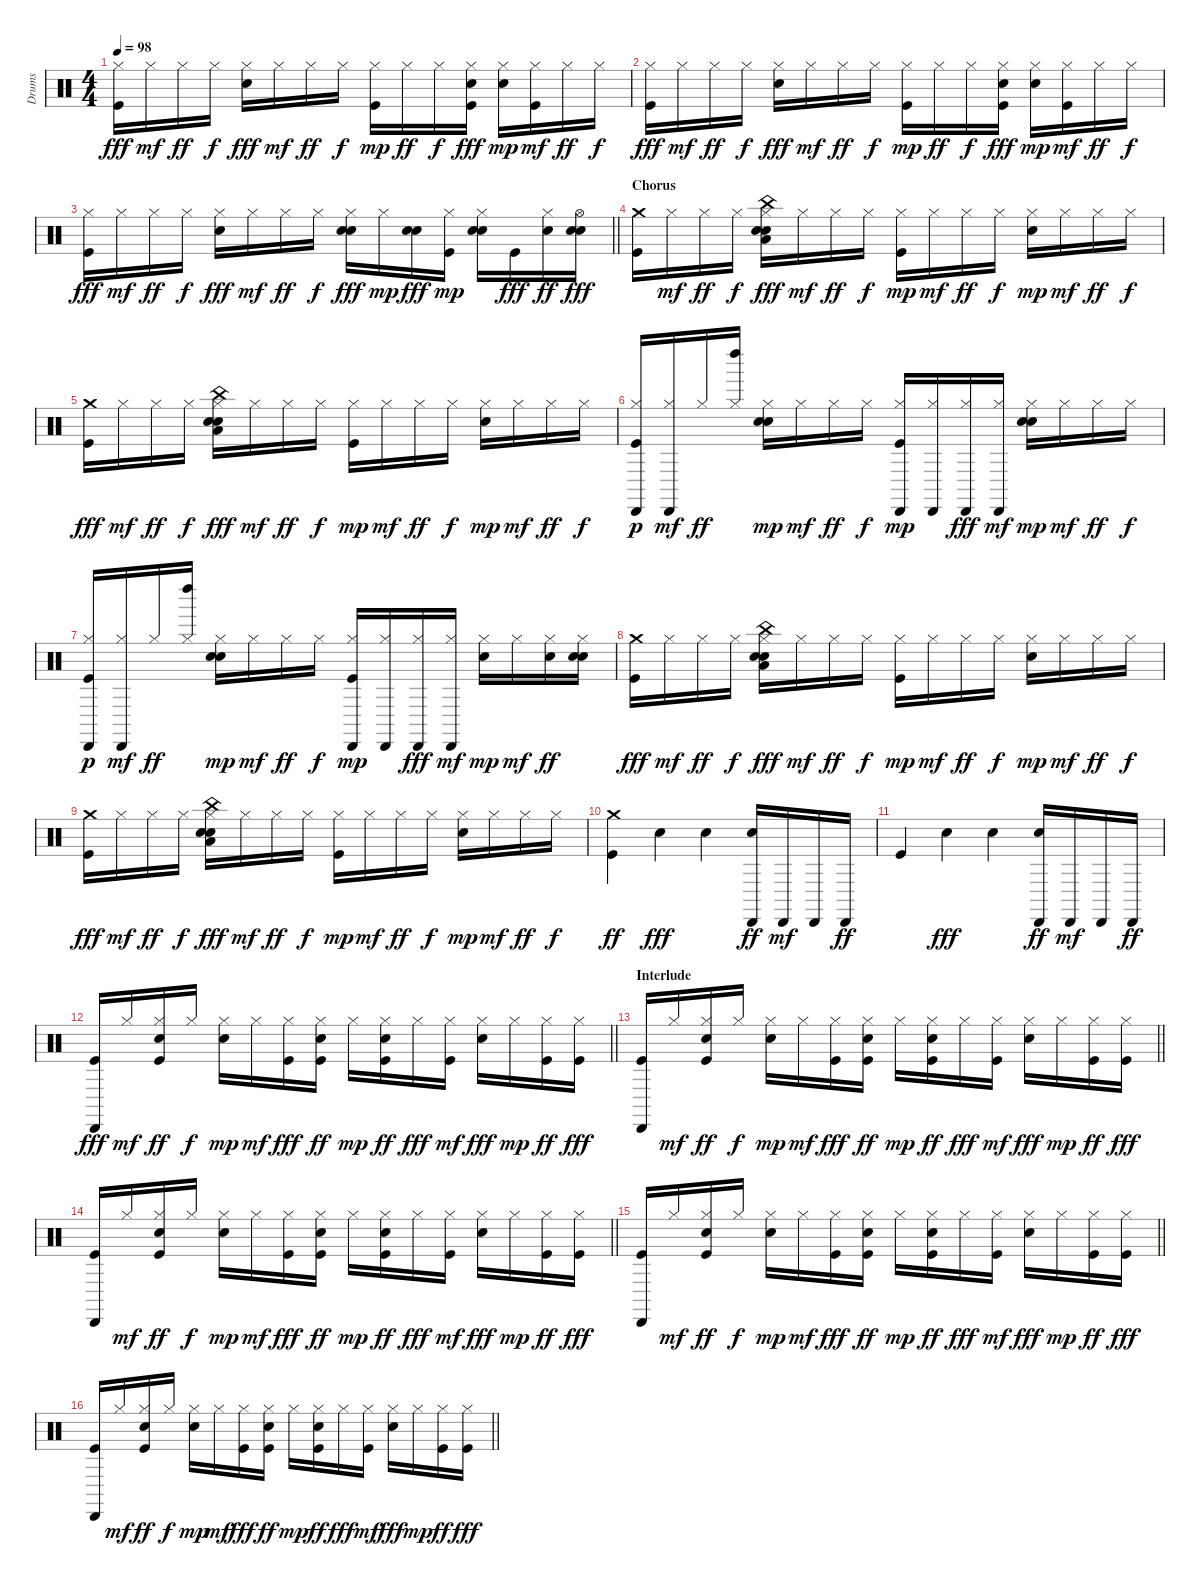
\track ("Drums" "Drums") {instrument percussion}
\staff {score}
\articulation defaults
\ts (4 4)
\tempo 98
\clef neutral
\ks c
("Hi-Hat (closed)" "Kick (hit)").16{dy fff} "Hi-Hat (closed)".16{dy mf} "Hi-Hat (closed)".16{dy ff} "Hi-Hat (closed)".16{dy f} ("Hi-Hat (closed)" "Snare (hit) 2").16{dy fff} "Hi-Hat (closed)".16{dy mf} "Hi-Hat (closed)".16{dy ff} "Hi-Hat (closed)".16{dy f} ("Kick (hit)" "Hi-Hat (closed)").16{dy mp} "Hi-Hat (closed)".16{dy ff} "Hi-Hat (closed)".16{dy f} ("Kick (hit)" "Hi-Hat (closed)" "Hand Clap (hit)").16{dy fff} ("Snare (hit) 2" "Hi-Hat (closed)").16{dy mp} ("Kick (hit)" "Hi-Hat (closed)").16{dy mf} "Hi-Hat (closed)".16{dy ff} "Hi-Hat (closed)".16{dy f} |
("Hi-Hat (closed)" "Kick (hit)").16{dy fff} "Hi-Hat (closed)".16{dy mf} "Hi-Hat (closed)".16{dy ff} "Hi-Hat (closed)".16{dy f} ("Hi-Hat (closed)" "Snare (hit) 2").16{dy fff} "Hi-Hat (closed)".16{dy mf} "Hi-Hat (closed)".16{dy ff} "Hi-Hat (closed)".16{dy f} ("Kick (hit)" "Hi-Hat (closed)").16{dy mp} "Hi-Hat (closed)".16{dy ff} "Hi-Hat (closed)".16{dy f} ("Kick (hit)" "Hi-Hat (closed)" "Hand Clap (hit)").16{dy fff} ("Snare (hit) 2" "Hi-Hat (closed)").16{dy mp} ("Kick (hit)" "Hi-Hat (closed)").16{dy mf} "Hi-Hat (closed)".16{dy ff} "Hi-Hat (closed)".16{dy f} |
\barLineRight lightlight
("Hi-Hat (closed)" "Kick (hit)").16{dy fff} "Hi-Hat (closed)".16{dy mf} "Hi-Hat (closed)".16{dy ff} "Hi-Hat (closed)".16{dy f} ("Hi-Hat (closed)" "Snare (hit) 2").16{dy fff} "Hi-Hat (closed)".16{dy mf} "Hi-Hat (closed)".16{dy ff} "Hi-Hat (closed)".16{dy f} ("Snare (hit) 2" "Hi-Hat (closed)" "Hand Clap (hit)").16{dy fff} "Hi-Hat (closed)".16{dy mp} ("Snare (hit) 2" "Hand Clap (hit)").16{dy fff} ("Kick (hit)" "Hi-Hat (closed)").16{dy mp} ("Snare (hit) 2" "Hand Clap (hit)" "Hi-Hat (closed)").16 "Kick (hit)".16{dy fff} ("Snare (hit) 2" "Hi-Hat (closed)").16{dy ff} ("Snare (hit) 2" "Hi-Hat (open)" "Hand Clap (hit)").16{dy fff} |
\section ("" "Chorus")
("Crash medium (hit)" "Kick (hit)").16 "Hi-Hat (closed)".16{dy mf} "Hi-Hat (closed)".16{dy ff} "Hi-Hat (closed)".16{dy f} ("Snare (hit) 2" "Hi-Hat (closed)" "Low Floor Tom (hit)" "China (hit)" "Hand Clap (hit)").16{dy fff} "Hi-Hat (closed)".16{dy mf} "Hi-Hat (closed)".16{dy ff} "Hi-Hat (closed)".16{dy f} ("Kick (hit)" "Hi-Hat (closed)").16{dy mp} "Hi-Hat (closed)".16{dy mf} "Hi-Hat (closed)".16{dy ff} "Hi-Hat (closed)".16{dy f} ("Snare (hit) 2" "Hi-Hat (closed)").16{dy mp} "Hi-Hat (closed)".16{dy mf} "Hi-Hat (closed)".16{dy ff} "Hi-Hat (closed)".16{dy f} |
("Crash medium (hit)" "Kick (hit)").16{dy fff} "Hi-Hat (closed)".16{dy mf} "Hi-Hat (closed)".16{dy ff} "Hi-Hat (closed)".16{dy f} ("Snare (hit) 2" "Hi-Hat (closed)" "Low Floor Tom (hit)" "China (hit)" "Hand Clap (hit)").16{dy fff} "Hi-Hat (closed)".16{dy mf} "Hi-Hat (closed)".16{dy ff} "Hi-Hat (closed)".16{dy f} ("Kick (hit)" "Hi-Hat (closed)").16{dy mp} "Hi-Hat (closed)".16{dy mf} "Hi-Hat (closed)".16{dy ff} "Hi-Hat (closed)".16{dy f} ("Snare (hit) 2" "Hi-Hat (closed)").16{dy mp} "Hi-Hat (closed)".16{dy mf} "Hi-Hat (closed)".16{dy ff} "Hi-Hat (closed)".16{dy f} |
("Kick (hit)" "Hi-Hat (closed)" "Cabasa (hit)").16{dy p} ("Hi-Hat (closed)" "Cabasa (hit)").16{dy mf} "Hi-Hat (closed)".16{dy ff} ("Hi-Hat (closed)" "Left Maraca (hit)").16 ("Snare (hit) 2" "Hi-Hat (closed)" "Hand Clap (hit)").16{dy mp} "Hi-Hat (closed)".16{dy mf} "Hi-Hat (closed)".16{dy ff} "Hi-Hat (closed)".16{dy f} ("Kick (hit)" "Hi-Hat (closed)" "Cabasa (hit)").16{dy mp} ("Cabasa (hit)" "Hi-Hat (closed)").16 ("Hi-Hat (closed)" "Cabasa (hit)").16{dy fff} ("Hi-Hat (closed)" "Cabasa (hit)").16{dy mf} ("Snare (hit) 2" "Hi-Hat (closed)" "Hand Clap (hit)").16{dy mp} "Hi-Hat (closed)".16{dy mf} "Hi-Hat (closed)".16{dy ff} "Hi-Hat (closed)".16{dy f} |
("Kick (hit)" "Hi-Hat (closed)" "Cabasa (hit)").16{dy p} ("Hi-Hat (closed)" "Cabasa (hit)").16{dy mf} "Hi-Hat (closed)".16{dy ff} ("Hi-Hat (closed)" "Left Maraca (hit)").16 ("Snare (hit) 2" "Hi-Hat (closed)" "Hand Clap (hit)").16{dy mp} "Hi-Hat (closed)".16{dy mf} "Hi-Hat (closed)".16{dy ff} "Hi-Hat (closed)".16{dy f} ("Kick (hit)" "Hi-Hat (closed)" "Cabasa (hit)").16{dy mp} ("Cabasa (hit)" "Hi-Hat (closed)").16 ("Hi-Hat (closed)" "Cabasa (hit)").16{dy fff} ("Hi-Hat (closed)" "Cabasa (hit)").16{dy mf} ("Snare (hit) 2" "Hi-Hat (closed)").16{dy mp} "Hi-Hat (closed)".16{dy mf} ("Snare (hit) 2" "Hi-Hat (closed)").16{dy ff} ("Snare (hit) 2" "Hi-Hat (closed)" "Hand Clap (hit)").16 |
("Crash medium (hit)" "Kick (hit)").16{dy fff} "Hi-Hat (closed)".16{dy mf} "Hi-Hat (closed)".16{dy ff} "Hi-Hat (closed)".16{dy f} ("Snare (hit) 2" "Hi-Hat (closed)" "Low Floor Tom (hit)" "China (hit)" "Hand Clap (hit)").16{dy fff} "Hi-Hat (closed)".16{dy mf} "Hi-Hat (closed)".16{dy ff} "Hi-Hat (closed)".16{dy f} ("Kick (hit)" "Hi-Hat (closed)").16{dy mp} "Hi-Hat (closed)".16{dy mf} "Hi-Hat (closed)".16{dy ff} "Hi-Hat (closed)".16{dy f} ("Snare (hit) 2" "Hi-Hat (closed)").16{dy mp} "Hi-Hat (closed)".16{dy mf} "Hi-Hat (closed)".16{dy ff} "Hi-Hat (closed)".16{dy f} |
("Crash medium (hit)" "Kick (hit)").16{dy fff} "Hi-Hat (closed)".16{dy mf} "Hi-Hat (closed)".16{dy ff} "Hi-Hat (closed)".16{dy f} ("Snare (hit) 2" "Hi-Hat (closed)" "Low Floor Tom (hit)" "China (hit)" "Hand Clap (hit)").16{dy fff} "Hi-Hat (closed)".16{dy mf} "Hi-Hat (closed)".16{dy ff} "Hi-Hat (closed)".16{dy f} ("Kick (hit)" "Hi-Hat (closed)").16{dy mp} "Hi-Hat (closed)".16{dy mf} "Hi-Hat (closed)".16{dy ff} "Hi-Hat (closed)".16{dy f} ("Snare (hit) 2" "Hi-Hat (closed)").16{dy mp} "Hi-Hat (closed)".16{dy mf} "Hi-Hat (closed)".16{dy ff} "Hi-Hat (closed)".16{dy f} |
("Kick (hit)" "Crash medium (hit)").4{dy ff} "Hand Clap (hit)".4{dy fff} "Hand Clap (hit)".4 ("Hand Clap (hit)" "Cabasa (hit)").16{dy ff} "Cabasa (hit)".16{dy mf} "Cabasa (hit)".16 "Cabasa (hit)".16{dy ff} |
"Kick (hit)".4 "Hand Clap (hit)".4{dy fff} "Hand Clap (hit)".4 ("Hand Clap (hit)" "Cabasa (hit)").16{dy ff} "Cabasa (hit)".16{dy mf} "Cabasa (hit)".16 "Cabasa (hit)".16{dy ff} |
\barLineRight lightlight
("Cabasa (hit)" "Kick (hit)").16{dy fff} "Hi-Hat (closed)".16{dy mf} ("Kick (hit)" "Hi-Hat (closed)" "Hand Clap (hit)").16{dy ff} "Hi-Hat (closed)".16{dy f} ("Snare (hit) 2" "Hi-Hat (closed)").16{dy mp} "Hi-Hat (closed)".16{dy mf} ("Kick (hit)" "Hi-Hat (closed)").16{dy fff} ("Kick (hit)" "Hi-Hat (closed)" "Hand Clap (hit)").16{dy ff} "Hi-Hat (closed)".16{dy mp} ("Kick (hit)" "Hi-Hat (closed)" "Hand Clap (hit)").16{dy ff} "Hi-Hat (closed)".16{dy fff} ("Kick (hit)" "Hi-Hat (closed)").16{dy mf} ("Hi-Hat (closed)" "Snare (hit) 2").16{dy fff} "Hi-Hat (closed)".16{dy mp} ("Hi-Hat (closed)" "Kick (hit)").16{dy ff} ("Hi-Hat (closed)" "Kick (hit)").16{dy fff} |
\section ("" "Interlude")
\barLineRight lightlight
("Cabasa (hit)" "Kick (hit)").16 "Hi-Hat (closed)".16{dy mf} ("Kick (hit)" "Hi-Hat (closed)" "Hand Clap (hit)").16{dy ff} "Hi-Hat (closed)".16{dy f} ("Snare (hit) 2" "Hi-Hat (closed)").16{dy mp} "Hi-Hat (closed)".16{dy mf} ("Kick (hit)" "Hi-Hat (closed)").16{dy fff} ("Kick (hit)" "Hi-Hat (closed)" "Hand Clap (hit)").16{dy ff} "Hi-Hat (closed)".16{dy mp} ("Kick (hit)" "Hi-Hat (closed)" "Hand Clap (hit)").16{dy ff} "Hi-Hat (closed)".16{dy fff} ("Kick (hit)" "Hi-Hat (closed)").16{dy mf} ("Hi-Hat (closed)" "Snare (hit) 2").16{dy fff} "Hi-Hat (closed)".16{dy mp} ("Hi-Hat (closed)" "Kick (hit)").16{dy ff} ("Hi-Hat (closed)" "Kick (hit)").16{dy fff} |
\barLineRight lightlight
("Cabasa (hit)" "Kick (hit)").16 "Hi-Hat (closed)".16{dy mf} ("Kick (hit)" "Hi-Hat (closed)" "Hand Clap (hit)").16{dy ff} "Hi-Hat (closed)".16{dy f} ("Snare (hit) 2" "Hi-Hat (closed)").16{dy mp} "Hi-Hat (closed)".16{dy mf} ("Kick (hit)" "Hi-Hat (closed)").16{dy fff} ("Kick (hit)" "Hi-Hat (closed)" "Hand Clap (hit)").16{dy ff} "Hi-Hat (closed)".16{dy mp} ("Kick (hit)" "Hi-Hat (closed)" "Hand Clap (hit)").16{dy ff} "Hi-Hat (closed)".16{dy fff} ("Kick (hit)" "Hi-Hat (closed)").16{dy mf} ("Hi-Hat (closed)" "Snare (hit) 2").16{dy fff} "Hi-Hat (closed)".16{dy mp} ("Hi-Hat (closed)" "Kick (hit)").16{dy ff} ("Hi-Hat (closed)" "Kick (hit)").16{dy fff} |
\barLineRight lightlight
("Cabasa (hit)" "Kick (hit)").16 "Hi-Hat (closed)".16{dy mf} ("Kick (hit)" "Hi-Hat (closed)" "Hand Clap (hit)").16{dy ff} "Hi-Hat (closed)".16{dy f} ("Snare (hit) 2" "Hi-Hat (closed)").16{dy mp} "Hi-Hat (closed)".16{dy mf} ("Kick (hit)" "Hi-Hat (closed)").16{dy fff} ("Kick (hit)" "Hi-Hat (closed)" "Hand Clap (hit)").16{dy ff} "Hi-Hat (closed)".16{dy mp} ("Kick (hit)" "Hi-Hat (closed)" "Hand Clap (hit)").16{dy ff} "Hi-Hat (closed)".16{dy fff} ("Kick (hit)" "Hi-Hat (closed)").16{dy mf} ("Hi-Hat (closed)" "Snare (hit) 2").16{dy fff} "Hi-Hat (closed)".16{dy mp} ("Hi-Hat (closed)" "Kick (hit)").16{dy ff} ("Hi-Hat (closed)" "Kick (hit)").16{dy fff} |
\barLineRight lightlight
("Cabasa (hit)" "Kick (hit)").16 "Hi-Hat (closed)".16{dy mf} ("Kick (hit)" "Hi-Hat (closed)" "Hand Clap (hit)").16{dy ff} "Hi-Hat (closed)".16{dy f} ("Snare (hit) 2" "Hi-Hat (closed)").16{dy mp} "Hi-Hat (closed)".16{dy mf} ("Kick (hit)" "Hi-Hat (closed)").16{dy fff} ("Kick (hit)" "Hi-Hat (closed)" "Hand Clap (hit)").16{dy ff} "Hi-Hat (closed)".16{dy mp} ("Kick (hit)" "Hi-Hat (closed)" "Hand Clap (hit)").16{dy ff} "Hi-Hat (closed)".16{dy fff} ("Kick (hit)" "Hi-Hat (closed)").16{dy mf} ("Hi-Hat (closed)" "Snare (hit) 2").16{dy fff} "Hi-Hat (closed)".16{dy mp} ("Hi-Hat (closed)" "Kick (hit)").16{dy ff} ("Hi-Hat (closed)" "Kick (hit)").16{dy fff}
